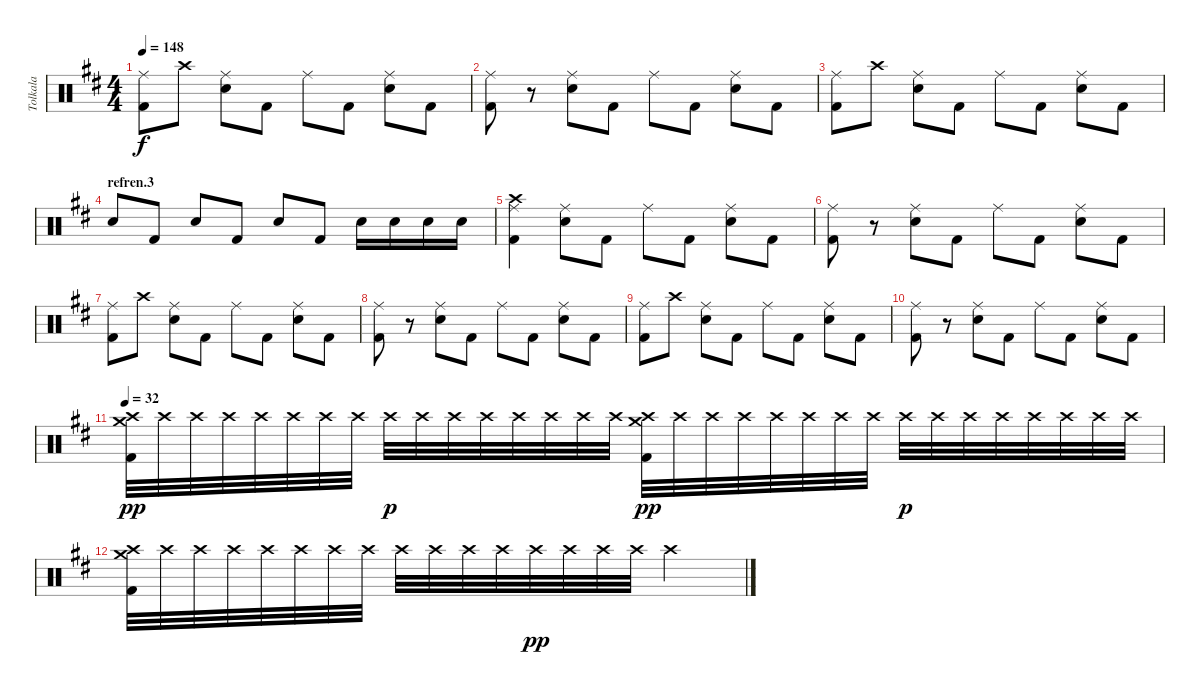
\track ("Tolkala" "Tolkala") {instrument percussion}
\staff {score}
\articulation defaults
\ts (4 4)
\tempo 148
\clef neutral
\ks d
("Kick (hit) 2" "Ride (middle)").8{dy f} "Crash high (hit)".8 ("Snare (hit) 2" "Ride (middle)").8 "Kick (hit) 2".8 "Ride (middle)".8 "Kick (hit) 2".8 ("Snare (hit) 2" "Ride (middle)").8 "Kick (hit) 2".8 |
("Kick (hit) 2" "Ride (middle)").8 r.8 ("Snare (hit) 2" "Ride (middle)").8 "Kick (hit) 2".8 "Ride (middle)".8 "Kick (hit) 2".8 ("Snare (hit) 2" "Ride (middle)").8 "Kick (hit) 2".8 |
("Kick (hit) 2" "Ride (middle)").8 "Crash high (hit)".8 ("Snare (hit) 2" "Ride (middle)").8 "Kick (hit) 2".8 "Ride (middle)".8 "Kick (hit) 2".8 ("Snare (hit) 2" "Ride (middle)").8 "Kick (hit) 2".8 |
\section ("" "refren.3")
"Snare (hit) 2".8 "Kick (hit) 2".8 "Snare (hit) 2".8 "Kick (hit) 2".8 "Snare (hit) 2".8 "Kick (hit) 2".8 "Snare (hit) 2".16 "Snare (hit) 2".16 "Snare (hit) 2".16 "Snare (hit) 2".16 |
("Crash high (hit)" "Kick (hit) 2" "Ride (middle)").4 ("Snare (hit) 2" "Ride (middle)").8 "Kick (hit) 2".8 "Ride (middle)".8 "Kick (hit) 2".8 ("Snare (hit) 2" "Ride (middle)").8 "Kick (hit) 2".8 |
("Kick (hit) 2" "Ride (middle)").8 r.8 ("Snare (hit) 2" "Ride (middle)").8 "Kick (hit) 2".8 "Ride (middle)".8 "Kick (hit) 2".8 ("Snare (hit) 2" "Ride (middle)").8 "Kick (hit) 2".8 |
("Kick (hit) 2" "Ride (middle)").8 "Crash high (hit)".8 ("Snare (hit) 2" "Ride (middle)").8 "Kick (hit) 2".8 "Ride (middle)".8 "Kick (hit) 2".8 ("Snare (hit) 2" "Ride (middle)").8 "Kick (hit) 2".8 |
("Kick (hit) 2" "Ride (middle)").8 r.8 ("Snare (hit) 2" "Ride (middle)").8 "Kick (hit) 2".8 "Ride (middle)".8 "Kick (hit) 2".8 ("Snare (hit) 2" "Ride (middle)").8 "Kick (hit) 2".8 |
("Kick (hit) 2" "Ride (middle)").8 "Crash high (hit)".8 ("Snare (hit) 2" "Ride (middle)").8 "Kick (hit) 2".8 "Ride (middle)".8 "Kick (hit) 2".8 ("Snare (hit) 2" "Ride (middle)").8 "Kick (hit) 2".8 |
("Kick (hit) 2" "Ride (middle)").8 r.8 ("Snare (hit) 2" "Ride (middle)").8 "Kick (hit) 2".8 "Ride (middle)".8 "Kick (hit) 2".8 ("Snare (hit) 2" "Ride (middle)").8 "Kick (hit) 2".8 |
\tempo 32
("Crash medium (hit)" "Crash high (hit)" "Kick (hit) 2").32{dy pp} "Crash high (hit)".32 "Crash high (hit)".32 "Crash high (hit)".32 "Crash high (hit)".32 "Crash high (hit)".32 "Crash high (hit)".32 "Crash high (hit)".32 "Crash high (hit)".32{dy p} "Crash high (hit)".32 "Crash high (hit)".32 "Crash high (hit)".32 "Crash high (hit)".32 "Crash high (hit)".32 "Crash high (hit)".32 "Crash high (hit)".32 ("Crash medium (hit)" "Crash high (hit)" "Kick (hit) 2").32{dy pp} "Crash high (hit)".32 "Crash high (hit)".32 "Crash high (hit)".32 "Crash high (hit)".32 "Crash high (hit)".32 "Crash high (hit)".32 "Crash high (hit)".32 "Crash high (hit)".32{dy p} "Crash high (hit)".32 "Crash high (hit)".32 "Crash high (hit)".32 "Crash high (hit)".32 "Crash high (hit)".32 "Crash high (hit)".32 "Crash high (hit)".32 |
("Crash medium (hit)" "Crash high (hit)" "Kick (hit) 2").32 "Crash high (hit)".32 "Crash high (hit)".32 "Crash high (hit)".32 "Crash high (hit)".32 "Crash high (hit)".32 "Crash high (hit)".32 "Crash high (hit)".32 "Crash high (hit)".32 "Crash high (hit)".32 "Crash high (hit)".32 "Crash high (hit)".32 "Crash high (hit)".32{dy pp} "Crash high (hit)".32 "Crash high (hit)".32 "Crash high (hit)".32 "Crash high (hit)".2
